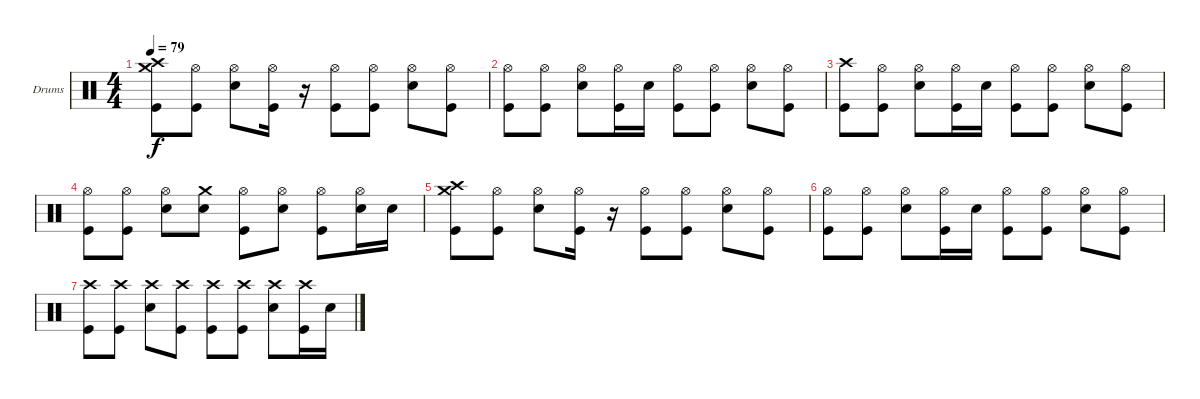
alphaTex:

\bracketExtendMode groupsimilarinstruments
\firstSystemTrackNameOrientation horizontal
\otherSystemsTrackNameOrientation horizontal
\track ("Drumkit" "Drums") {instrument percussion}
\staff {score}
\articulation defaults
\ts (4 4)
\tempo 79
\clef neutral
\ks c
("Crash medium (hit)" "Crash high (hit)" "Kick (hit)").8{dy f} ("Hi-Hat (open)" "Kick (hit)").8 ("Hi-Hat (open)" "Snare (hit) 2").8 ("Hi-Hat (open)" "Kick (hit)").16 r.16 ("Hi-Hat (open)" "Kick (hit)").8 ("Hi-Hat (open)" "Kick (hit)").8 ("Hi-Hat (open)" "Snare (hit) 2").8 ("Hi-Hat (open)" "Kick (hit)").8 |
("Hi-Hat (open)" "Kick (hit)").8 ("Hi-Hat (open)" "Kick (hit)").8 ("Hi-Hat (open)" "Snare (hit) 2").8 ("Hi-Hat (open)" "Kick (hit)").16 "Snare (hit) 2".16 ("Hi-Hat (open)" "Kick (hit)").8 ("Hi-Hat (open)" "Kick (hit)").8 ("Hi-Hat (open)" "Snare (hit) 2").8 ("Hi-Hat (open)" "Kick (hit)").8 |
("Crash high (hit)" "Kick (hit)").8 ("Hi-Hat (open)" "Kick (hit)").8 ("Hi-Hat (open)" "Snare (hit) 2").8 ("Hi-Hat (open)" "Kick (hit)").16 "Snare (hit) 2".16 ("Hi-Hat (open)" "Kick (hit)").8 ("Hi-Hat (open)" "Kick (hit)").8 ("Hi-Hat (open)" "Snare (hit) 2").8 ("Hi-Hat (open)" "Kick (hit)").8 |
("Hi-Hat (open)" "Kick (hit)").8 ("Hi-Hat (open)" "Kick (hit)").8 ("Hi-Hat (open)" "Snare (hit) 2").8 ("Crash medium (hit)" "Snare (hit) 2").8 ("Hi-Hat (open)" "Kick (hit)").8 ("Hi-Hat (open)" "Snare (hit) 2").8 ("Hi-Hat (open)" "Kick (hit)").8 ("Hi-Hat (open)" "Snare (hit) 2").16 "Snare (hit) 2".16 |
("Crash medium (hit)" "Crash high (hit)" "Kick (hit)").8 ("Hi-Hat (open)" "Kick (hit)").8 ("Hi-Hat (open)" "Snare (hit) 2").8 ("Hi-Hat (open)" "Kick (hit)").16 r.16 ("Hi-Hat (open)" "Kick (hit)").8 ("Hi-Hat (open)" "Kick (hit)").8 ("Hi-Hat (open)" "Snare (hit) 2").8 ("Hi-Hat (open)" "Kick (hit)").8 |
("Hi-Hat (open)" "Kick (hit)").8 ("Hi-Hat (open)" "Kick (hit)").8 ("Hi-Hat (open)" "Snare (hit) 2").8 ("Hi-Hat (open)" "Kick (hit)").16 "Snare (hit) 2".16 ("Hi-Hat (open)" "Kick (hit)").8 ("Hi-Hat (open)" "Kick (hit)").8 ("Hi-Hat (open)" "Snare (hit) 2").8 ("Hi-Hat (open)" "Kick (hit)").8 |
("Crash high (hit)" "Kick (hit)").8 ("Crash high (hit)" "Kick (hit)").8 ("Crash high (hit)" "Snare (hit) 2").8 ("Crash high (hit)" "Kick (hit)").8 ("Crash high (hit)" "Kick (hit)").8 ("Crash high (hit)" "Kick (hit)").8 ("Crash high (hit)" "Snare (hit) 2").8 ("Crash high (hit)" "Kick (hit)").16 "Snare (hit) 2".16
